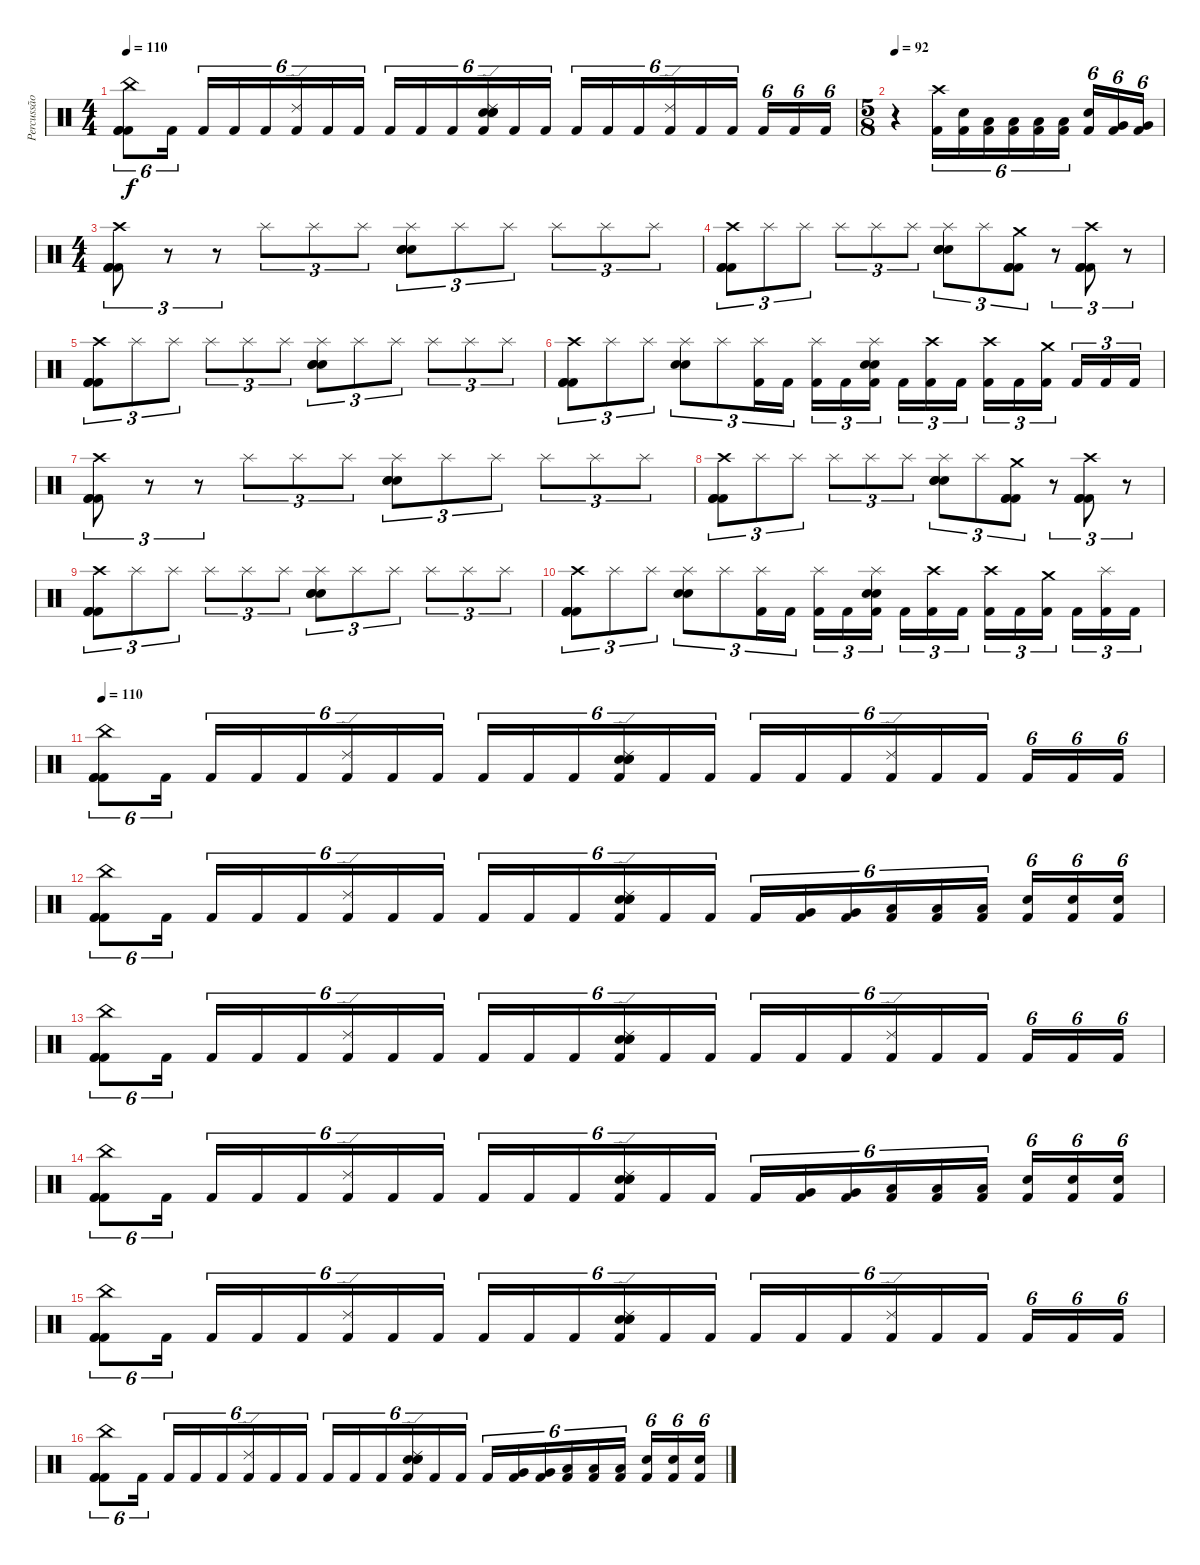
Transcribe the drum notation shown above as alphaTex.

\track ("Percussão" "Percussão") {instrument percussion}
\staff {score}
\articulation defaults
\ts (4 4)
\tempo 110
\clef neutral
\ks c
("China (hit)" "Kick (hit) 2" "Kick (hit) 2" "Kick (hit) 2").8{tu (6 4) dy f} "Kick (hit) 2".16{tu (6 4) beam splitsecondary} "Kick (hit) 2".16{tu (6 4)} "Kick (hit) 2".16{tu (6 4)} "Kick (hit) 2".16{tu (6 4)} ("Ride (edge) 2" "Kick (hit) 2").16{tu (6 4)} "Kick (hit) 2".16{tu (6 4)} "Kick (hit) 2".16{tu (6 4) beam splitsecondary} "Kick (hit) 2".16{tu (6 4)} "Kick (hit) 2".16{tu (6 4)} "Kick (hit) 2".16{tu (6 4)} ("Ride (edge) 2" "Electric Snare (hit)" "Electric Snare (hit)" "Electric Snare (hit)" "Kick (hit) 2").16{tu (6 4)} "Kick (hit) 2".16{tu (6 4)} "Kick (hit) 2".16{tu (6 4) beam splitsecondary} "Kick (hit) 2".16{tu (6 4)} "Kick (hit) 2".16{tu (6 4)} "Kick (hit) 2".16{tu (6 4)} ("Ride (edge) 2" "Kick (hit) 2").16{tu (6 4)} "Kick (hit) 2".16{tu (6 4)} "Kick (hit) 2".16{tu (6 4) beam splitsecondary} "Kick (hit) 2".16{tu (6 4)} "Kick (hit) 2".16{tu (6 4)} "Kick (hit) 2".16{tu (6 4)} |
\ts (5 8)
\tempo 92
r.4 ("Crash high (hit)" "Kick (hit) 2").16{tu (6 4)} ("Electric Snare (hit)" "Kick (hit) 2").16{tu (6 4)} ("Low Tom (hit)" "Kick (hit) 2").16{tu (6 4)} ("Low Floor Tom (hit)" "Kick (hit) 2").16{tu (6 4)} ("Low Floor Tom (hit)" "Kick (hit) 2").16{tu (6 4)} ("Low Tom (hit)" "Kick (hit) 2").16{tu (6 4)} ("Electric Snare (hit)" "Kick (hit) 2").16{tu (6 4)} ("Very Low Tom (hit)" "Kick (hit) 2").16{tu (6 4)} ("Very Low Tom (hit)" "Kick (hit) 2").16{tu (6 4)} |
\ts (4 4)
("Crash high (hit)" "Kick (hit) 2" "Kick (hit) 2" "Kick (hit) 2").8{tu (3 2)} r.8{tu (3 2)} r.8{tu (3 2)} "Splash (hit)".8{tu (3 2)} "Splash (hit)".8{tu (3 2)} "Splash (hit)".8{tu (3 2)} ("Splash (hit)" "Electric Snare (hit)" "Electric Snare (hit)" "Electric Snare (hit)").8{tu (3 2)} "Splash (hit)".8{tu (3 2)} "Splash (hit)".8{tu (3 2)} "Splash (hit)".8{tu (3 2)} "Splash (hit)".8{tu (3 2)} "Splash (hit)".8{tu (3 2)} |
("Crash high (hit)" "Kick (hit) 2" "Kick (hit) 2" "Kick (hit) 2").8{tu (3 2)} "Splash (hit)".8{tu (3 2)} "Splash (hit)".8{tu (3 2)} "Splash (hit)".8{tu (3 2)} "Splash (hit)".8{tu (3 2)} "Splash (hit)".8{tu (3 2)} ("Splash (hit)" "Electric Snare (hit)" "Electric Snare (hit)" "Electric Snare (hit)").8{tu (3 2)} "Splash (hit)".8{tu (3 2)} ("Crash medium (hit)" "Kick (hit) 2" "Kick (hit) 2" "Kick (hit) 2").8{tu (3 2)} r.8{tu (3 2)} ("Crash high (hit)" "Kick (hit) 2" "Kick (hit) 2" "Kick (hit) 2").8{tu (3 2)} r.8{tu (3 2)} |
("Crash high (hit)" "Kick (hit) 2" "Kick (hit) 2" "Kick (hit) 2").8{tu (3 2)} "Splash (hit)".8{tu (3 2)} "Splash (hit)".8{tu (3 2)} "Splash (hit)".8{tu (3 2)} "Splash (hit)".8{tu (3 2)} "Splash (hit)".8{tu (3 2)} ("Splash (hit)" "Electric Snare (hit)" "Electric Snare (hit)" "Electric Snare (hit)").8{tu (3 2)} "Splash (hit)".8{tu (3 2)} "Splash (hit)".8{tu (3 2)} "Splash (hit)".8{tu (3 2)} "Splash (hit)".8{tu (3 2)} "Splash (hit)".8{tu (3 2)} |
("Crash high (hit)" "Kick (hit) 2" "Kick (hit) 2" "Kick (hit) 2").8{tu (3 2)} "Splash (hit)".8{tu (3 2)} "Splash (hit)".8{tu (3 2)} ("Splash (hit)" "Electric Snare (hit)" "Electric Snare (hit)").8{tu (3 2)} "Splash (hit)".8{tu (3 2)} ("Splash (hit)" "Kick (hit) 2").16{tu (3 2)} "Kick (hit) 2".16{tu (3 2)} ("Splash (hit)" "Kick (hit) 2").16{tu (3 2)} "Kick (hit) 2".16{tu (3 2)} ("Splash (hit)" "Electric Snare (hit)" "Electric Snare (hit)" "Kick (hit) 2").16{tu (3 2) beam splitsecondary} "Kick (hit) 2".16{tu (3 2)} ("Crash high (hit)" "Kick (hit) 2").16{tu (3 2)} "Kick (hit) 2".16{tu (3 2)} ("Crash high (hit)" "Kick (hit) 2").16{tu (3 2)} "Kick (hit) 2".16{tu (3 2)} ("Crash medium (hit)" "Kick (hit) 2").16{tu (3 2) beam splitsecondary} "Kick (hit) 2".16{tu (3 2)} "Kick (hit) 2".16{tu (3 2)} "Kick (hit) 2".16{tu (3 2)} |
("Crash high (hit)" "Kick (hit) 2" "Kick (hit) 2" "Kick (hit) 2").8{tu (3 2)} r.8{tu (3 2)} r.8{tu (3 2)} "Splash (hit)".8{tu (3 2)} "Splash (hit)".8{tu (3 2)} "Splash (hit)".8{tu (3 2)} ("Splash (hit)" "Electric Snare (hit)" "Electric Snare (hit)" "Electric Snare (hit)").8{tu (3 2)} "Splash (hit)".8{tu (3 2)} "Splash (hit)".8{tu (3 2)} "Splash (hit)".8{tu (3 2)} "Splash (hit)".8{tu (3 2)} "Splash (hit)".8{tu (3 2)} |
("Crash high (hit)" "Kick (hit) 2" "Kick (hit) 2" "Kick (hit) 2").8{tu (3 2)} "Splash (hit)".8{tu (3 2)} "Splash (hit)".8{tu (3 2)} "Splash (hit)".8{tu (3 2)} "Splash (hit)".8{tu (3 2)} "Splash (hit)".8{tu (3 2)} ("Splash (hit)" "Electric Snare (hit)" "Electric Snare (hit)" "Electric Snare (hit)").8{tu (3 2)} "Splash (hit)".8{tu (3 2)} ("Crash medium (hit)" "Kick (hit) 2" "Kick (hit) 2" "Kick (hit) 2").8{tu (3 2)} r.8{tu (3 2)} ("Crash high (hit)" "Kick (hit) 2" "Kick (hit) 2" "Kick (hit) 2").8{tu (3 2)} r.8{tu (3 2)} |
("Crash high (hit)" "Kick (hit) 2" "Kick (hit) 2" "Kick (hit) 2").8{tu (3 2)} "Splash (hit)".8{tu (3 2)} "Splash (hit)".8{tu (3 2)} "Splash (hit)".8{tu (3 2)} "Splash (hit)".8{tu (3 2)} "Splash (hit)".8{tu (3 2)} ("Splash (hit)" "Electric Snare (hit)" "Electric Snare (hit)" "Electric Snare (hit)").8{tu (3 2)} "Splash (hit)".8{tu (3 2)} "Splash (hit)".8{tu (3 2)} "Splash (hit)".8{tu (3 2)} "Splash (hit)".8{tu (3 2)} "Splash (hit)".8{tu (3 2)} |
("Crash high (hit)" "Kick (hit) 2" "Kick (hit) 2" "Kick (hit) 2").8{tu (3 2)} "Splash (hit)".8{tu (3 2)} "Splash (hit)".8{tu (3 2)} ("Splash (hit)" "Electric Snare (hit)" "Electric Snare (hit)").8{tu (3 2)} "Splash (hit)".8{tu (3 2)} ("Splash (hit)" "Kick (hit) 2").16{tu (3 2)} "Kick (hit) 2".16{tu (3 2)} ("Splash (hit)" "Kick (hit) 2").16{tu (3 2)} "Kick (hit) 2".16{tu (3 2)} ("Splash (hit)" "Electric Snare (hit)" "Electric Snare (hit)" "Kick (hit) 2").16{tu (3 2) beam splitsecondary} "Kick (hit) 2".16{tu (3 2)} ("Crash high (hit)" "Kick (hit) 2").16{tu (3 2)} "Kick (hit) 2".16{tu (3 2)} ("Crash high (hit)" "Kick (hit) 2").16{tu (3 2)} "Kick (hit) 2".16{tu (3 2)} ("Crash medium (hit)" "Kick (hit) 2").16{tu (3 2) beam splitsecondary} "Kick (hit) 2".16{tu (3 2)} ("Splash (hit)" "Kick (hit) 2").16{tu (3 2)} "Kick (hit) 2".16{tu (3 2)} |
\tempo 110
("China (hit)" "Kick (hit) 2" "Kick (hit) 2" "Kick (hit) 2").8{tu (6 4)} "Kick (hit) 2".16{tu (6 4) beam splitsecondary} "Kick (hit) 2".16{tu (6 4)} "Kick (hit) 2".16{tu (6 4)} "Kick (hit) 2".16{tu (6 4)} ("Ride (edge) 2" "Kick (hit) 2").16{tu (6 4)} "Kick (hit) 2".16{tu (6 4)} "Kick (hit) 2".16{tu (6 4) beam splitsecondary} "Kick (hit) 2".16{tu (6 4)} "Kick (hit) 2".16{tu (6 4)} "Kick (hit) 2".16{tu (6 4)} ("Ride (edge) 2" "Electric Snare (hit)" "Electric Snare (hit)" "Electric Snare (hit)" "Kick (hit) 2").16{tu (6 4)} "Kick (hit) 2".16{tu (6 4)} "Kick (hit) 2".16{tu (6 4) beam splitsecondary} "Kick (hit) 2".16{tu (6 4)} "Kick (hit) 2".16{tu (6 4)} "Kick (hit) 2".16{tu (6 4)} ("Ride (edge) 2" "Kick (hit) 2").16{tu (6 4)} "Kick (hit) 2".16{tu (6 4)} "Kick (hit) 2".16{tu (6 4) beam splitsecondary} "Kick (hit) 2".16{tu (6 4)} "Kick (hit) 2".16{tu (6 4)} "Kick (hit) 2".16{tu (6 4)} |
("China (hit)" "Kick (hit) 2" "Kick (hit) 2" "Kick (hit) 2").8{tu (6 4)} "Kick (hit) 2".16{tu (6 4) beam splitsecondary} "Kick (hit) 2".16{tu (6 4)} "Kick (hit) 2".16{tu (6 4)} "Kick (hit) 2".16{tu (6 4)} ("Ride (edge) 2" "Kick (hit) 2").16{tu (6 4)} "Kick (hit) 2".16{tu (6 4)} "Kick (hit) 2".16{tu (6 4) beam splitsecondary} "Kick (hit) 2".16{tu (6 4)} "Kick (hit) 2".16{tu (6 4)} "Kick (hit) 2".16{tu (6 4)} ("Ride (edge) 2" "Electric Snare (hit)" "Electric Snare (hit)" "Electric Snare (hit)" "Kick (hit) 2").16{tu (6 4)} "Kick (hit) 2".16{tu (6 4)} "Kick (hit) 2".16{tu (6 4) beam splitsecondary} "Kick (hit) 2".16{tu (6 4)} ("Very Low Tom (hit)" "Kick (hit) 2").16{tu (6 4)} ("Very Low Tom (hit)" "Kick (hit) 2").16{tu (6 4)} ("Low Tom (hit)" "Kick (hit) 2").16{tu (6 4)} ("Low Tom (hit)" "Kick (hit) 2").16{tu (6 4)} ("Low Tom (hit)" "Kick (hit) 2").16{tu (6 4) beam splitsecondary} ("Electric Snare (hit)" "Kick (hit) 2").16{tu (6 4)} ("Electric Snare (hit)" "Kick (hit) 2").16{tu (6 4)} ("Electric Snare (hit)" "Kick (hit) 2").16{tu (6 4)} |
("China (hit)" "Kick (hit) 2" "Kick (hit) 2" "Kick (hit) 2").8{tu (6 4)} "Kick (hit) 2".16{tu (6 4) beam splitsecondary} "Kick (hit) 2".16{tu (6 4)} "Kick (hit) 2".16{tu (6 4)} "Kick (hit) 2".16{tu (6 4)} ("Ride (edge) 2" "Kick (hit) 2").16{tu (6 4)} "Kick (hit) 2".16{tu (6 4)} "Kick (hit) 2".16{tu (6 4) beam splitsecondary} "Kick (hit) 2".16{tu (6 4)} "Kick (hit) 2".16{tu (6 4)} "Kick (hit) 2".16{tu (6 4)} ("Ride (edge) 2" "Electric Snare (hit)" "Electric Snare (hit)" "Electric Snare (hit)" "Kick (hit) 2").16{tu (6 4)} "Kick (hit) 2".16{tu (6 4)} "Kick (hit) 2".16{tu (6 4) beam splitsecondary} "Kick (hit) 2".16{tu (6 4)} "Kick (hit) 2".16{tu (6 4)} "Kick (hit) 2".16{tu (6 4)} ("Ride (edge) 2" "Kick (hit) 2").16{tu (6 4)} "Kick (hit) 2".16{tu (6 4)} "Kick (hit) 2".16{tu (6 4) beam splitsecondary} "Kick (hit) 2".16{tu (6 4)} "Kick (hit) 2".16{tu (6 4)} "Kick (hit) 2".16{tu (6 4)} |
("China (hit)" "Kick (hit) 2" "Kick (hit) 2" "Kick (hit) 2").8{tu (6 4)} "Kick (hit) 2".16{tu (6 4) beam splitsecondary} "Kick (hit) 2".16{tu (6 4)} "Kick (hit) 2".16{tu (6 4)} "Kick (hit) 2".16{tu (6 4)} ("Ride (edge) 2" "Kick (hit) 2").16{tu (6 4)} "Kick (hit) 2".16{tu (6 4)} "Kick (hit) 2".16{tu (6 4) beam splitsecondary} "Kick (hit) 2".16{tu (6 4)} "Kick (hit) 2".16{tu (6 4)} "Kick (hit) 2".16{tu (6 4)} ("Ride (edge) 2" "Electric Snare (hit)" "Electric Snare (hit)" "Electric Snare (hit)" "Kick (hit) 2").16{tu (6 4)} "Kick (hit) 2".16{tu (6 4)} "Kick (hit) 2".16{tu (6 4) beam splitsecondary} "Kick (hit) 2".16{tu (6 4)} ("Very Low Tom (hit)" "Kick (hit) 2").16{tu (6 4)} ("Very Low Tom (hit)" "Kick (hit) 2").16{tu (6 4)} ("Low Tom (hit)" "Kick (hit) 2").16{tu (6 4)} ("Low Tom (hit)" "Kick (hit) 2").16{tu (6 4)} ("Low Tom (hit)" "Kick (hit) 2").16{tu (6 4) beam splitsecondary} ("Electric Snare (hit)" "Kick (hit) 2").16{tu (6 4)} ("Electric Snare (hit)" "Kick (hit) 2").16{tu (6 4)} ("Electric Snare (hit)" "Kick (hit) 2").16{tu (6 4)} |
("China (hit)" "Kick (hit) 2" "Kick (hit) 2" "Kick (hit) 2").8{tu (6 4)} "Kick (hit) 2".16{tu (6 4) beam splitsecondary} "Kick (hit) 2".16{tu (6 4)} "Kick (hit) 2".16{tu (6 4)} "Kick (hit) 2".16{tu (6 4)} ("Ride (edge) 2" "Kick (hit) 2").16{tu (6 4)} "Kick (hit) 2".16{tu (6 4)} "Kick (hit) 2".16{tu (6 4) beam splitsecondary} "Kick (hit) 2".16{tu (6 4)} "Kick (hit) 2".16{tu (6 4)} "Kick (hit) 2".16{tu (6 4)} ("Ride (edge) 2" "Electric Snare (hit)" "Electric Snare (hit)" "Electric Snare (hit)" "Kick (hit) 2").16{tu (6 4)} "Kick (hit) 2".16{tu (6 4)} "Kick (hit) 2".16{tu (6 4) beam splitsecondary} "Kick (hit) 2".16{tu (6 4)} "Kick (hit) 2".16{tu (6 4)} "Kick (hit) 2".16{tu (6 4)} ("Ride (edge) 2" "Kick (hit) 2").16{tu (6 4)} "Kick (hit) 2".16{tu (6 4)} "Kick (hit) 2".16{tu (6 4) beam splitsecondary} "Kick (hit) 2".16{tu (6 4)} "Kick (hit) 2".16{tu (6 4)} "Kick (hit) 2".16{tu (6 4)} |
("China (hit)" "Kick (hit) 2" "Kick (hit) 2" "Kick (hit) 2").8{tu (6 4)} "Kick (hit) 2".16{tu (6 4) beam splitsecondary} "Kick (hit) 2".16{tu (6 4)} "Kick (hit) 2".16{tu (6 4)} "Kick (hit) 2".16{tu (6 4)} ("Ride (edge) 2" "Kick (hit) 2").16{tu (6 4)} "Kick (hit) 2".16{tu (6 4)} "Kick (hit) 2".16{tu (6 4) beam splitsecondary} "Kick (hit) 2".16{tu (6 4)} "Kick (hit) 2".16{tu (6 4)} "Kick (hit) 2".16{tu (6 4)} ("Ride (edge) 2" "Electric Snare (hit)" "Electric Snare (hit)" "Electric Snare (hit)" "Kick (hit) 2").16{tu (6 4)} "Kick (hit) 2".16{tu (6 4)} "Kick (hit) 2".16{tu (6 4) beam splitsecondary} "Kick (hit) 2".16{tu (6 4)} ("Very Low Tom (hit)" "Kick (hit) 2").16{tu (6 4)} ("Very Low Tom (hit)" "Kick (hit) 2").16{tu (6 4)} ("Low Tom (hit)" "Kick (hit) 2").16{tu (6 4)} ("Low Tom (hit)" "Kick (hit) 2").16{tu (6 4)} ("Low Tom (hit)" "Kick (hit) 2").16{tu (6 4) beam splitsecondary} ("Electric Snare (hit)" "Kick (hit) 2").16{tu (6 4)} ("Electric Snare (hit)" "Kick (hit) 2").16{tu (6 4)} ("Electric Snare (hit)" "Kick (hit) 2").16{tu (6 4)}
